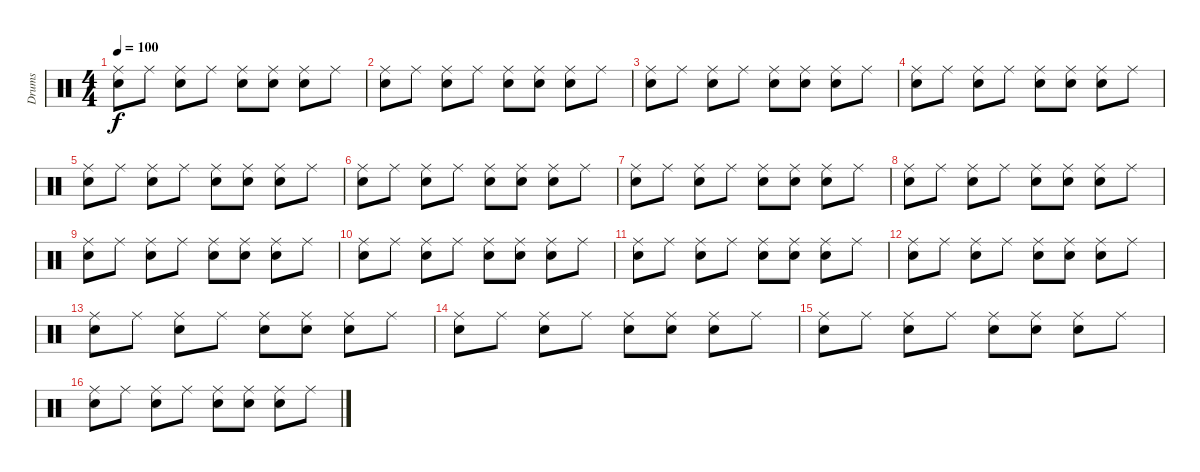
\track ("Drums" "Drums") {instrument percussion}
\staff {score}
\articulation defaults
\ts (4 4)
\tempo 100
\clef neutral
\ks c
("Ride (middle)" "Snare (hit) 2").8{dy f} "Ride (middle)".8 ("Ride (middle)" "Electric Snare (hit)").8 "Ride (middle)".8 ("Ride (middle)" "Snare (hit) 2").8 ("Ride (middle)" "Snare (hit) 2").8 ("Ride (middle)" "Electric Snare (hit)").8 "Ride (middle)".8 |
("Ride (middle)" "Snare (hit) 2").8 "Ride (middle)".8 ("Ride (middle)" "Electric Snare (hit)").8 "Ride (middle)".8 ("Ride (middle)" "Snare (hit) 2").8 ("Ride (middle)" "Snare (hit) 2").8 ("Ride (middle)" "Electric Snare (hit)").8 "Ride (middle)".8 |
("Ride (middle)" "Snare (hit) 2").8 "Ride (middle)".8 ("Ride (middle)" "Electric Snare (hit)").8 "Ride (middle)".8 ("Ride (middle)" "Snare (hit) 2").8 ("Ride (middle)" "Snare (hit) 2").8 ("Ride (middle)" "Electric Snare (hit)").8 "Ride (middle)".8 |
("Ride (middle)" "Snare (hit) 2").8 "Ride (middle)".8 ("Ride (middle)" "Electric Snare (hit)").8 "Ride (middle)".8 ("Ride (middle)" "Snare (hit) 2").8 ("Ride (middle)" "Snare (hit) 2").8 ("Ride (middle)" "Electric Snare (hit)").8 "Ride (middle)".8 |
("Ride (middle)" "Snare (hit) 2").8 "Ride (middle)".8 ("Ride (middle)" "Electric Snare (hit)").8 "Ride (middle)".8 ("Ride (middle)" "Snare (hit) 2").8 ("Ride (middle)" "Snare (hit) 2").8 ("Ride (middle)" "Electric Snare (hit)").8 "Ride (middle)".8 |
("Ride (middle)" "Snare (hit) 2").8 "Ride (middle)".8 ("Ride (middle)" "Electric Snare (hit)").8 "Ride (middle)".8 ("Ride (middle)" "Snare (hit) 2").8 ("Ride (middle)" "Snare (hit) 2").8 ("Ride (middle)" "Electric Snare (hit)").8 "Ride (middle)".8 |
("Ride (middle)" "Snare (hit) 2").8 "Ride (middle)".8 ("Ride (middle)" "Electric Snare (hit)").8 "Ride (middle)".8 ("Ride (middle)" "Snare (hit) 2").8 ("Ride (middle)" "Snare (hit) 2").8 ("Ride (middle)" "Electric Snare (hit)").8 "Ride (middle)".8 |
("Ride (middle)" "Snare (hit) 2").8 "Ride (middle)".8 ("Ride (middle)" "Electric Snare (hit)").8 "Ride (middle)".8 ("Ride (middle)" "Snare (hit) 2").8 ("Ride (middle)" "Snare (hit) 2").8 ("Ride (middle)" "Electric Snare (hit)").8 "Ride (middle)".8 |
("Ride (middle)" "Snare (hit) 2").8 "Ride (middle)".8 ("Ride (middle)" "Electric Snare (hit)").8 "Ride (middle)".8 ("Ride (middle)" "Snare (hit) 2").8 ("Ride (middle)" "Snare (hit) 2").8 ("Ride (middle)" "Electric Snare (hit)").8 "Ride (middle)".8 |
("Ride (middle)" "Snare (hit) 2").8 "Ride (middle)".8 ("Ride (middle)" "Electric Snare (hit)").8 "Ride (middle)".8 ("Ride (middle)" "Snare (hit) 2").8 ("Ride (middle)" "Snare (hit) 2").8 ("Ride (middle)" "Electric Snare (hit)").8 "Ride (middle)".8 |
("Ride (middle)" "Snare (hit) 2").8 "Ride (middle)".8 ("Ride (middle)" "Electric Snare (hit)").8 "Ride (middle)".8 ("Ride (middle)" "Snare (hit) 2").8 ("Ride (middle)" "Snare (hit) 2").8 ("Ride (middle)" "Electric Snare (hit)").8 "Ride (middle)".8 |
("Ride (middle)" "Snare (hit) 2").8 "Ride (middle)".8 ("Ride (middle)" "Electric Snare (hit)").8 "Ride (middle)".8 ("Ride (middle)" "Snare (hit) 2").8 ("Ride (middle)" "Snare (hit) 2").8 ("Ride (middle)" "Electric Snare (hit)").8 "Ride (middle)".8 |
("Ride (middle)" "Snare (hit) 2").8 "Ride (middle)".8 ("Ride (middle)" "Electric Snare (hit)").8 "Ride (middle)".8 ("Ride (middle)" "Snare (hit) 2").8 ("Ride (middle)" "Snare (hit) 2").8 ("Ride (middle)" "Electric Snare (hit)").8 "Ride (middle)".8 |
("Ride (middle)" "Snare (hit) 2").8 "Ride (middle)".8 ("Ride (middle)" "Electric Snare (hit)").8 "Ride (middle)".8 ("Ride (middle)" "Snare (hit) 2").8 ("Ride (middle)" "Snare (hit) 2").8 ("Ride (middle)" "Electric Snare (hit)").8 "Ride (middle)".8 |
("Ride (middle)" "Snare (hit) 2").8 "Ride (middle)".8 ("Ride (middle)" "Electric Snare (hit)").8 "Ride (middle)".8 ("Ride (middle)" "Snare (hit) 2").8 ("Ride (middle)" "Snare (hit) 2").8 ("Ride (middle)" "Electric Snare (hit)").8 "Ride (middle)".8 |
("Ride (middle)" "Snare (hit) 2").8 "Ride (middle)".8 ("Ride (middle)" "Electric Snare (hit)").8 "Ride (middle)".8 ("Ride (middle)" "Snare (hit) 2").8 ("Ride (middle)" "Snare (hit) 2").8 ("Ride (middle)" "Electric Snare (hit)").8 "Ride (middle)".8
